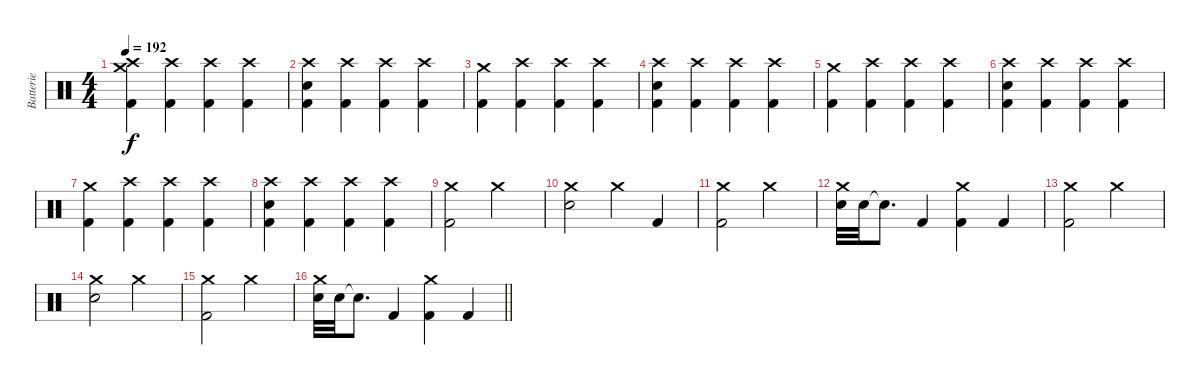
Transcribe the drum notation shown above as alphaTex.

\track ("Batterie" "Batterie") {instrument percussion}
\staff {score}
\articulation defaults
\ts (4 4)
\tempo 192
\clef neutral
\ks c
("Crash medium (hit)" "Crash high (hit)" "Kick (hit) 2").4{dy f} ("Crash high (hit)" "Kick (hit) 2").4 ("Crash high (hit)" "Kick (hit) 2").4 ("Crash high (hit)" "Kick (hit) 2").4 |
("Crash high (hit)" "Snare (hit) 2" "Kick (hit) 2").4 ("Crash high (hit)" "Kick (hit) 2").4 ("Crash high (hit)" "Kick (hit) 2").4 ("Crash high (hit)" "Kick (hit) 2").4 |
("Crash medium (hit)" "Kick (hit) 2").4 ("Crash high (hit)" "Kick (hit) 2").4 ("Crash high (hit)" "Kick (hit) 2").4 ("Crash high (hit)" "Kick (hit) 2").4 |
("Crash high (hit)" "Snare (hit) 2" "Kick (hit) 2").4 ("Crash high (hit)" "Kick (hit) 2").4 ("Crash high (hit)" "Kick (hit) 2").4 ("Crash high (hit)" "Kick (hit) 2").4 |
("Crash medium (hit)" "Kick (hit) 2").4 ("Crash high (hit)" "Kick (hit) 2").4 ("Crash high (hit)" "Kick (hit) 2").4 ("Crash high (hit)" "Kick (hit) 2").4 |
("Crash high (hit)" "Snare (hit) 2" "Kick (hit) 2").4 ("Crash high (hit)" "Kick (hit) 2").4 ("Crash high (hit)" "Kick (hit) 2").4 ("Crash high (hit)" "Kick (hit) 2").4 |
("Crash medium (hit)" "Kick (hit) 2").4 ("Crash high (hit)" "Kick (hit) 2").4 ("Crash high (hit)" "Kick (hit) 2").4 ("Crash high (hit)" "Kick (hit) 2").4 |
("Crash high (hit)" "Snare (hit) 2" "Kick (hit) 2").4 ("Crash high (hit)" "Kick (hit) 2").4 ("Crash high (hit)" "Kick (hit) 2").4 ("Crash high (hit)" "Kick (hit) 2").4 |
("Crash medium (hit)" "Kick (hit) 2").2 "Crash medium (hit)".2 |
("Crash medium (hit)" "Snare (hit) 2").2 "Crash medium (hit)".4 "Kick (hit) 2".4 |
("Crash medium (hit)" "Kick (hit) 2").2 "Crash medium (hit)".2 |
("Crash medium (hit)" "Snare (hit) 2").32 "Snare (hit) 2".32 "Snare (hit)"{t}.8{d} "Kick (hit) 2".4 ("Crash medium (hit)" "Kick (hit) 2").4 "Kick (hit) 2".4 |
("Crash medium (hit)" "Kick (hit) 2").2 "Crash medium (hit)".2 |
("Crash medium (hit)" "Snare (hit) 2").2 "Crash medium (hit)".2 |
("Crash medium (hit)" "Kick (hit) 2").2 "Crash medium (hit)".2 |
\barLineRight lightlight
("Crash medium (hit)" "Snare (hit) 2").32 "Snare (hit) 2".32 "Snare (hit)"{t}.8{d} "Kick (hit) 2".4 ("Crash medium (hit)" "Kick (hit) 2").4 "Kick (hit) 2".4
